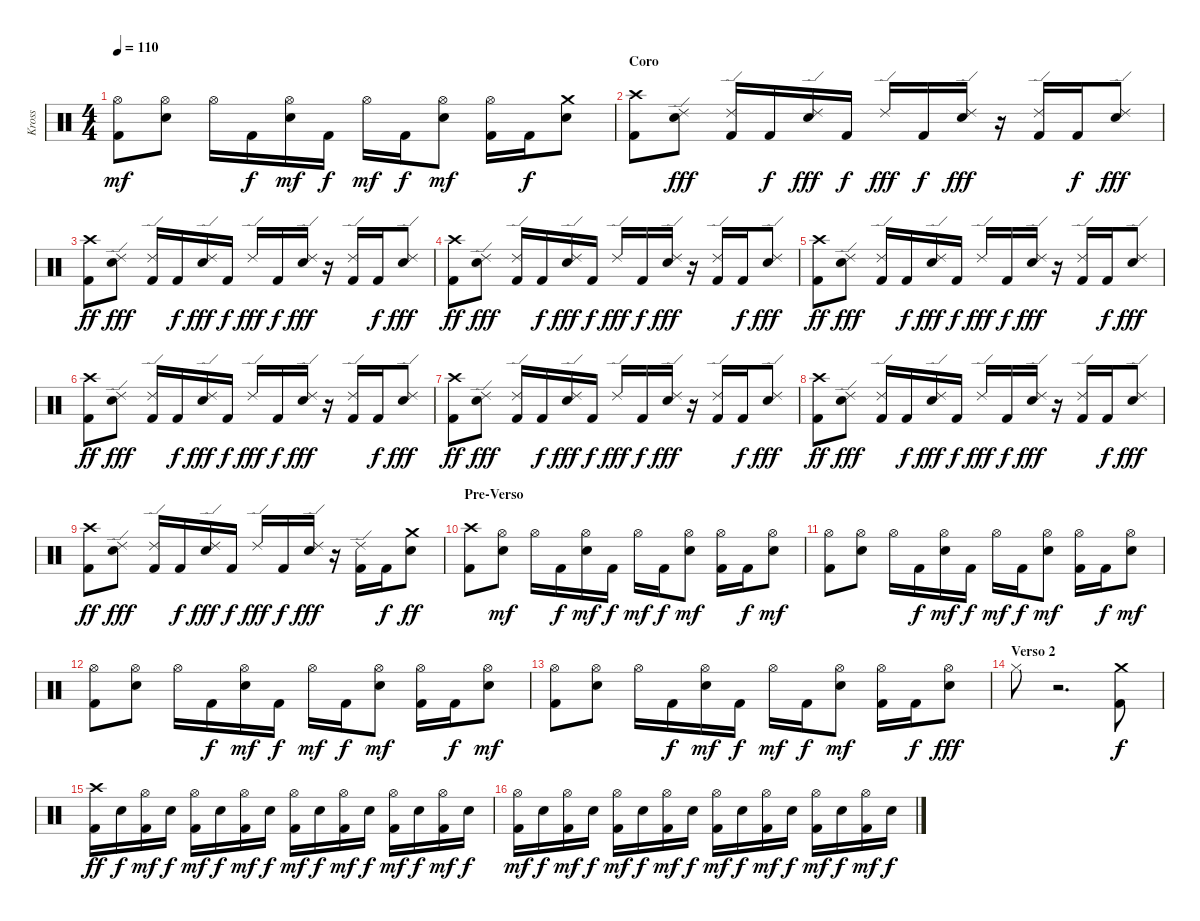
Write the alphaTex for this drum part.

\track ("Kross" "Kross") {instrument percussion}
\staff {score}
\articulation defaults
\ts (4 4)
\tempo 110
\clef neutral
\ks c
("Hi-Hat (open)" "Kick (hit) 2").8{dy mf} ("Hi-Hat (open)" "Electric Snare (hit)").8 "Hi-Hat (open)".16 "Kick (hit) 2".16{dy f} ("Hi-Hat (open)" "Electric Snare (hit)").16{dy mf} "Kick (hit) 2".16{dy f} "Hi-Hat (open)".16{dy mf} "Kick (hit) 2".16{dy f} ("Hi-Hat (open)" "Electric Snare (hit)").8{dy mf} ("Hi-Hat (open)" "Kick (hit) 2").16 "Kick (hit) 2".16{dy f} ("Crash medium (hit)" "Electric Snare (hit)").8 |
\section ("" "Coro")
("Crash high (hit)" "Kick (hit) 2").8 ("Ride (edge) 2" "Electric Snare (hit)").8{dy fff} ("Ride (edge) 2" "Kick (hit) 2").16 "Kick (hit) 2".16{dy f} ("Ride (edge) 2" "Electric Snare (hit)").16{dy fff} "Kick (hit) 2".16{dy f} "Ride (edge) 2".16{dy fff} "Kick (hit) 2".16{dy f} ("Ride (edge) 2" "Electric Snare (hit)").16{dy fff} r.16 ("Ride (edge) 2" "Kick (hit) 2").16 "Kick (hit) 2".16{dy f} ("Ride (edge) 2" "Electric Snare (hit)").8{dy fff} |
("Crash high (hit)" "Kick (hit) 2").8{dy ff} ("Ride (edge) 2" "Electric Snare (hit)").8{dy fff} ("Ride (edge) 2" "Kick (hit) 2").16 "Kick (hit) 2".16{dy f} ("Ride (edge) 2" "Electric Snare (hit)").16{dy fff} "Kick (hit) 2".16{dy f} "Ride (edge) 2".16{dy fff} "Kick (hit) 2".16{dy f} ("Ride (edge) 2" "Electric Snare (hit)").16{dy fff} r.16 ("Ride (edge) 2" "Kick (hit) 2").16 "Kick (hit) 2".16{dy f} ("Ride (edge) 2" "Electric Snare (hit)").8{dy fff} |
("Crash high (hit)" "Kick (hit) 2").8{dy ff} ("Ride (edge) 2" "Electric Snare (hit)").8{dy fff} ("Ride (edge) 2" "Kick (hit) 2").16 "Kick (hit) 2".16{dy f} ("Ride (edge) 2" "Electric Snare (hit)").16{dy fff} "Kick (hit) 2".16{dy f} "Ride (edge) 2".16{dy fff} "Kick (hit) 2".16{dy f} ("Ride (edge) 2" "Electric Snare (hit)").16{dy fff} r.16 ("Ride (edge) 2" "Kick (hit) 2").16 "Kick (hit) 2".16{dy f} ("Ride (edge) 2" "Electric Snare (hit)").8{dy fff} |
("Crash high (hit)" "Kick (hit) 2").8{dy ff} ("Ride (edge) 2" "Electric Snare (hit)").8{dy fff} ("Ride (edge) 2" "Kick (hit) 2").16 "Kick (hit) 2".16{dy f} ("Ride (edge) 2" "Electric Snare (hit)").16{dy fff} "Kick (hit) 2".16{dy f} "Ride (edge) 2".16{dy fff} "Kick (hit) 2".16{dy f} ("Ride (edge) 2" "Electric Snare (hit)").16{dy fff} r.16 ("Ride (edge) 2" "Kick (hit) 2").16 "Kick (hit) 2".16{dy f} ("Ride (edge) 2" "Electric Snare (hit)").8{dy fff} |
("Crash high (hit)" "Kick (hit) 2").8{dy ff} ("Ride (edge) 2" "Electric Snare (hit)").8{dy fff} ("Ride (edge) 2" "Kick (hit) 2").16 "Kick (hit) 2".16{dy f} ("Ride (edge) 2" "Electric Snare (hit)").16{dy fff} "Kick (hit) 2".16{dy f} "Ride (edge) 2".16{dy fff} "Kick (hit) 2".16{dy f} ("Ride (edge) 2" "Electric Snare (hit)").16{dy fff} r.16 ("Ride (edge) 2" "Kick (hit) 2").16 "Kick (hit) 2".16{dy f} ("Ride (edge) 2" "Electric Snare (hit)").8{dy fff} |
("Crash high (hit)" "Kick (hit) 2").8{dy ff} ("Ride (edge) 2" "Electric Snare (hit)").8{dy fff} ("Ride (edge) 2" "Kick (hit) 2").16 "Kick (hit) 2".16{dy f} ("Ride (edge) 2" "Electric Snare (hit)").16{dy fff} "Kick (hit) 2".16{dy f} "Ride (edge) 2".16{dy fff} "Kick (hit) 2".16{dy f} ("Ride (edge) 2" "Electric Snare (hit)").16{dy fff} r.16 ("Ride (edge) 2" "Kick (hit) 2").16 "Kick (hit) 2".16{dy f} ("Ride (edge) 2" "Electric Snare (hit)").8{dy fff} |
("Crash high (hit)" "Kick (hit) 2").8{dy ff} ("Ride (edge) 2" "Electric Snare (hit)").8{dy fff} ("Ride (edge) 2" "Kick (hit) 2").16 "Kick (hit) 2".16{dy f} ("Ride (edge) 2" "Electric Snare (hit)").16{dy fff} "Kick (hit) 2".16{dy f} "Ride (edge) 2".16{dy fff} "Kick (hit) 2".16{dy f} ("Ride (edge) 2" "Electric Snare (hit)").16{dy fff} r.16 ("Ride (edge) 2" "Kick (hit) 2").16 "Kick (hit) 2".16{dy f} ("Ride (edge) 2" "Electric Snare (hit)").8{dy fff} |
("Crash high (hit)" "Kick (hit) 2").8{dy ff} ("Ride (edge) 2" "Electric Snare (hit)").8{dy fff} ("Ride (edge) 2" "Kick (hit) 2").16 "Kick (hit) 2".16{dy f} ("Ride (edge) 2" "Electric Snare (hit)").16{dy fff} "Kick (hit) 2".16{dy f} "Ride (edge) 2".16{dy fff} "Kick (hit) 2".16{dy f} ("Ride (edge) 2" "Electric Snare (hit)").16{dy fff} r.16 ("Ride (edge) 2" "Kick (hit) 2").16 "Kick (hit) 2".16{dy f} ("Crash medium (hit)" "Electric Snare (hit)").8{dy ff} |
\section ("" "Pre-Verso")
("Crash high (hit)" "Kick (hit) 2").8 ("Hi-Hat (open)" "Electric Snare (hit)").8{dy mf} "Hi-Hat (open)".16 "Kick (hit) 2".16{dy f} ("Hi-Hat (open)" "Electric Snare (hit)").16{dy mf} "Kick (hit) 2".16{dy f} "Hi-Hat (open)".16{dy mf} "Kick (hit) 2".16{dy f} ("Hi-Hat (open)" "Electric Snare (hit)").8{dy mf} ("Hi-Hat (open)" "Kick (hit) 2").16 "Kick (hit) 2".16{dy f} ("Hi-Hat (open)" "Electric Snare (hit)").8{dy mf} |
("Hi-Hat (open)" "Kick (hit) 2").8 ("Hi-Hat (open)" "Electric Snare (hit)").8 "Hi-Hat (open)".16 "Kick (hit) 2".16{dy f} ("Hi-Hat (open)" "Electric Snare (hit)").16{dy mf} "Kick (hit) 2".16{dy f} "Hi-Hat (open)".16{dy mf} "Kick (hit) 2".16{dy f} ("Hi-Hat (open)" "Electric Snare (hit)").8{dy mf} ("Hi-Hat (open)" "Kick (hit) 2").16 "Kick (hit) 2".16{dy f} ("Hi-Hat (open)" "Electric Snare (hit)").8{dy mf} |
("Hi-Hat (open)" "Kick (hit) 2").8 ("Hi-Hat (open)" "Electric Snare (hit)").8 "Hi-Hat (open)".16 "Kick (hit) 2".16{dy f} ("Hi-Hat (open)" "Electric Snare (hit)").16{dy mf} "Kick (hit) 2".16{dy f} "Hi-Hat (open)".16{dy mf} "Kick (hit) 2".16{dy f} ("Hi-Hat (open)" "Electric Snare (hit)").8{dy mf} ("Hi-Hat (open)" "Kick (hit) 2").16 "Kick (hit) 2".16{dy f} ("Hi-Hat (open)" "Electric Snare (hit)").8{dy mf} |
("Hi-Hat (open)" "Kick (hit) 2").8 ("Hi-Hat (open)" "Electric Snare (hit)").8 "Hi-Hat (open)".16 "Kick (hit) 2".16{dy f} ("Hi-Hat (open)" "Electric Snare (hit)").16{dy mf} "Kick (hit) 2".16{dy f} "Hi-Hat (open)".16{dy mf} "Kick (hit) 2".16{dy f} ("Hi-Hat (open)" "Electric Snare (hit)").8{dy mf} ("Hi-Hat (open)" "Kick (hit) 2").16 "Kick (hit) 2".16{dy f} ("Hi-Hat (open)" "Electric Snare (hit)").8{dy fff} |
\section ("" "Verso 2")
"Hi-Hat (closed)".8 r.2{d} ("Crash medium (hit)" "Kick (hit) 2").8{dy f} |
("Crash high (hit)" "Kick (hit) 2").16{dy ff} "Electric Snare (hit)".16{dy f} ("Hi-Hat (open)" "Kick (hit) 2").16{dy mf} "Electric Snare (hit)".16{dy f} ("Hi-Hat (open)" "Kick (hit) 2").16{dy mf} "Electric Snare (hit)".16{dy f} ("Hi-Hat (open)" "Kick (hit) 2").16{dy mf} "Electric Snare (hit)".16{dy f} ("Hi-Hat (open)" "Kick (hit) 2").16{dy mf} "Electric Snare (hit)".16{dy f} ("Hi-Hat (open)" "Kick (hit) 2").16{dy mf} "Electric Snare (hit)".16{dy f} ("Hi-Hat (open)" "Kick (hit) 2").16{dy mf} "Electric Snare (hit)".16{dy f} ("Hi-Hat (open)" "Kick (hit) 2").16{dy mf} "Electric Snare (hit)".16{dy f} |
("Hi-Hat (open)" "Kick (hit) 2").16{dy mf} "Electric Snare (hit)".16{dy f} ("Hi-Hat (open)" "Kick (hit) 2").16{dy mf} "Electric Snare (hit)".16{dy f} ("Hi-Hat (open)" "Kick (hit) 2").16{dy mf} "Electric Snare (hit)".16{dy f} ("Hi-Hat (open)" "Kick (hit) 2").16{dy mf} "Electric Snare (hit)".16{dy f} ("Hi-Hat (open)" "Kick (hit) 2").16{dy mf} "Electric Snare (hit)".16{dy f} ("Hi-Hat (open)" "Kick (hit) 2").16{dy mf} "Electric Snare (hit)".16{dy f} ("Hi-Hat (open)" "Kick (hit) 2").16{dy mf} "Electric Snare (hit)".16{dy f} ("Hi-Hat (open)" "Kick (hit) 2").16{dy mf} "Electric Snare (hit)".16{dy f}
